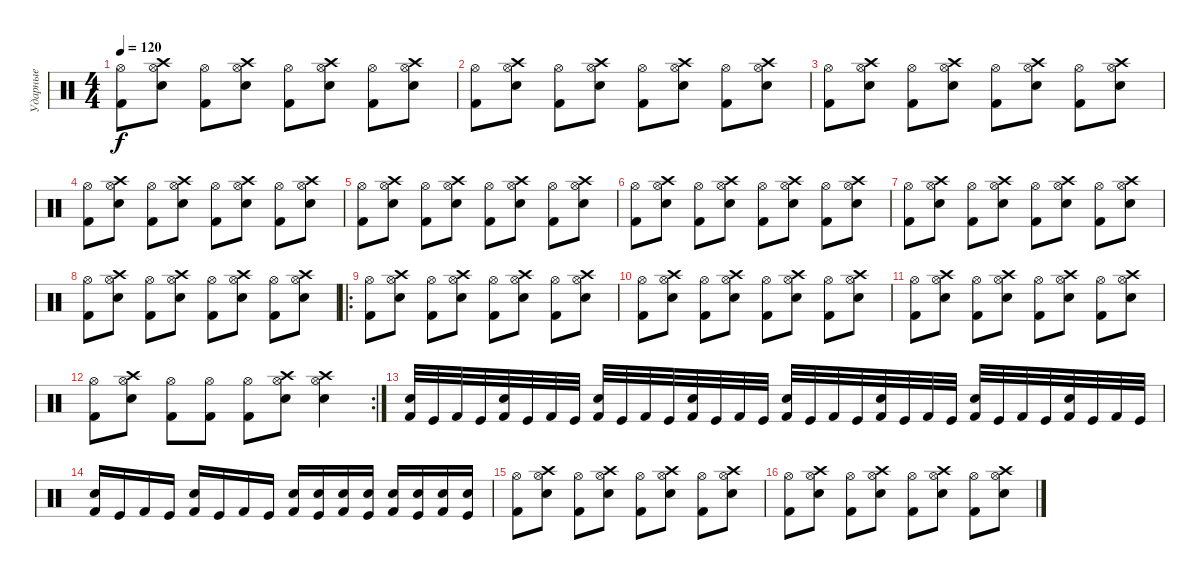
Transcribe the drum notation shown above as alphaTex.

\track ("Ударные" "Ударные") {instrument percussion}
\staff {score}
\articulation defaults
\ts (4 4)
\tempo 120
\clef neutral
\ks c
("Hi-Hat (open)" "Kick (hit) 2").8{dy f} ("Hi-Hat (open)" "Crash high (hit)" "Snare (hit) 2").8 ("Hi-Hat (open)" "Kick (hit) 2").8 ("Hi-Hat (open)" "Crash high (hit)" "Snare (hit) 2").8 ("Hi-Hat (open)" "Kick (hit) 2").8 ("Hi-Hat (open)" "Crash high (hit)" "Snare (hit) 2").8 ("Hi-Hat (open)" "Kick (hit) 2").8 ("Hi-Hat (open)" "Crash high (hit)" "Snare (hit) 2").8 |
("Hi-Hat (open)" "Kick (hit) 2").8 ("Hi-Hat (open)" "Crash high (hit)" "Snare (hit) 2").8 ("Hi-Hat (open)" "Kick (hit) 2").8 ("Hi-Hat (open)" "Crash high (hit)" "Snare (hit) 2").8 ("Hi-Hat (open)" "Kick (hit) 2").8 ("Hi-Hat (open)" "Crash high (hit)" "Snare (hit) 2").8 ("Hi-Hat (open)" "Kick (hit) 2").8 ("Hi-Hat (open)" "Crash high (hit)" "Snare (hit) 2").8 |
("Hi-Hat (open)" "Kick (hit) 2").8 ("Hi-Hat (open)" "Crash high (hit)" "Snare (hit) 2").8 ("Hi-Hat (open)" "Kick (hit) 2").8 ("Hi-Hat (open)" "Crash high (hit)" "Snare (hit) 2").8 ("Hi-Hat (open)" "Kick (hit) 2").8 ("Hi-Hat (open)" "Crash high (hit)" "Snare (hit) 2").8 ("Hi-Hat (open)" "Kick (hit) 2").8 ("Hi-Hat (open)" "Crash high (hit)" "Snare (hit) 2").8 |
("Hi-Hat (open)" "Kick (hit) 2").8 ("Hi-Hat (open)" "Crash high (hit)" "Snare (hit) 2").8 ("Hi-Hat (open)" "Kick (hit) 2").8 ("Hi-Hat (open)" "Crash high (hit)" "Snare (hit) 2").8 ("Hi-Hat (open)" "Kick (hit) 2").8 ("Hi-Hat (open)" "Crash high (hit)" "Snare (hit) 2").8 ("Hi-Hat (open)" "Kick (hit) 2").8 ("Hi-Hat (open)" "Crash high (hit)" "Snare (hit) 2").8 |
("Hi-Hat (open)" "Kick (hit) 2").8 ("Hi-Hat (open)" "Crash high (hit)" "Snare (hit) 2").8 ("Hi-Hat (open)" "Kick (hit) 2").8 ("Hi-Hat (open)" "Crash high (hit)" "Snare (hit) 2").8 ("Hi-Hat (open)" "Kick (hit) 2").8 ("Hi-Hat (open)" "Crash high (hit)" "Snare (hit) 2").8 ("Hi-Hat (open)" "Kick (hit) 2").8 ("Hi-Hat (open)" "Crash high (hit)" "Snare (hit) 2").8 |
("Hi-Hat (open)" "Kick (hit) 2").8 ("Hi-Hat (open)" "Crash high (hit)" "Snare (hit) 2").8 ("Hi-Hat (open)" "Kick (hit) 2").8 ("Hi-Hat (open)" "Crash high (hit)" "Snare (hit) 2").8 ("Hi-Hat (open)" "Kick (hit) 2").8 ("Hi-Hat (open)" "Crash high (hit)" "Snare (hit) 2").8 ("Hi-Hat (open)" "Kick (hit) 2").8 ("Hi-Hat (open)" "Crash high (hit)" "Snare (hit) 2").8 |
("Hi-Hat (open)" "Kick (hit) 2").8 ("Hi-Hat (open)" "Crash high (hit)" "Snare (hit) 2").8 ("Hi-Hat (open)" "Kick (hit) 2").8 ("Hi-Hat (open)" "Crash high (hit)" "Snare (hit) 2").8 ("Hi-Hat (open)" "Kick (hit) 2").8 ("Hi-Hat (open)" "Crash high (hit)" "Snare (hit) 2").8 ("Hi-Hat (open)" "Kick (hit) 2").8 ("Hi-Hat (open)" "Crash high (hit)" "Snare (hit) 2").8 |
("Hi-Hat (open)" "Kick (hit) 2").8 ("Hi-Hat (open)" "Crash high (hit)" "Snare (hit) 2").8 ("Hi-Hat (open)" "Kick (hit) 2").8 ("Hi-Hat (open)" "Crash high (hit)" "Snare (hit) 2").8 ("Hi-Hat (open)" "Kick (hit) 2").8 ("Hi-Hat (open)" "Crash high (hit)" "Snare (hit) 2").8 ("Hi-Hat (open)" "Kick (hit) 2").8 ("Hi-Hat (open)" "Crash high (hit)" "Snare (hit) 2").8 |
\ro
("Hi-Hat (open)" "Kick (hit) 2").8 ("Hi-Hat (open)" "Crash high (hit)" "Snare (hit) 2").8 ("Hi-Hat (open)" "Kick (hit) 2").8 ("Hi-Hat (open)" "Crash high (hit)" "Snare (hit) 2").8 ("Hi-Hat (open)" "Kick (hit) 2").8 ("Hi-Hat (open)" "Crash high (hit)" "Snare (hit) 2").8 ("Hi-Hat (open)" "Kick (hit) 2").8 ("Hi-Hat (open)" "Crash high (hit)" "Snare (hit) 2").8 |
("Hi-Hat (open)" "Kick (hit) 2").8 ("Hi-Hat (open)" "Crash high (hit)" "Snare (hit) 2").8 ("Hi-Hat (open)" "Kick (hit) 2").8 ("Hi-Hat (open)" "Crash high (hit)" "Snare (hit) 2").8 ("Hi-Hat (open)" "Kick (hit) 2").8 ("Hi-Hat (open)" "Crash high (hit)" "Snare (hit) 2").8 ("Hi-Hat (open)" "Kick (hit) 2").8 ("Hi-Hat (open)" "Crash high (hit)" "Snare (hit) 2").8 |
("Hi-Hat (open)" "Kick (hit) 2").8 ("Hi-Hat (open)" "Crash high (hit)" "Snare (hit) 2").8 ("Hi-Hat (open)" "Kick (hit) 2").8 ("Hi-Hat (open)" "Crash high (hit)" "Snare (hit) 2").8 ("Hi-Hat (open)" "Kick (hit) 2").8 ("Hi-Hat (open)" "Crash high (hit)" "Snare (hit) 2").8 ("Hi-Hat (open)" "Kick (hit) 2").8 ("Hi-Hat (open)" "Crash high (hit)" "Snare (hit) 2").8 |
\rc 2
("Hi-Hat (open)" "Kick (hit) 2").8 ("Hi-Hat (open)" "Crash high (hit)" "Snare (hit) 2").8 ("Hi-Hat (open)" "Kick (hit) 2").8 ("Hi-Hat (open)" "Kick (hit) 2").8 ("Hi-Hat (open)" "Kick (hit) 2").8 ("Hi-Hat (open)" "Crash high (hit)" "Snare (hit) 2").8 ("Hi-Hat (open)" "Crash high (hit)" "Snare (hit) 2").4 |
("Snare (hit) 2" "Kick (hit) 2").32 "Kick (hit)".32 "Kick (hit) 2".32 "Kick (hit)".32 ("Snare (hit) 2" "Kick (hit) 2").32 "Kick (hit)".32 "Kick (hit) 2".32 "Kick (hit)".32 ("Snare (hit) 2" "Kick (hit) 2").32 "Kick (hit)".32 "Kick (hit) 2".32 "Kick (hit)".32 ("Snare (hit) 2" "Kick (hit) 2").32 "Kick (hit)".32 "Kick (hit) 2".32 "Kick (hit)".32 ("Snare (hit) 2" "Kick (hit) 2").32 "Kick (hit)".32 "Kick (hit) 2".32 "Kick (hit)".32 ("Snare (hit) 2" "Kick (hit) 2").32 "Kick (hit)".32 "Kick (hit) 2".32 "Kick (hit)".32 ("Snare (hit) 2" "Kick (hit) 2").32 "Kick (hit)".32 "Kick (hit) 2".32 "Kick (hit)".32 ("Snare (hit) 2" "Kick (hit) 2").32 "Kick (hit)".32 "Kick (hit) 2".32 "Kick (hit)".32 |
("Snare (hit) 2" "Kick (hit) 2").16 "Kick (hit)".16 "Kick (hit) 2".16 "Kick (hit)".16 ("Snare (hit) 2" "Kick (hit) 2").16 "Kick (hit)".16 "Kick (hit) 2".16 "Kick (hit)".16 ("Snare (hit) 2" "Kick (hit) 2").16 ("Snare (hit) 2" "Kick (hit)").16 ("Snare (hit) 2" "Kick (hit) 2").16 ("Snare (hit) 2" "Kick (hit)").16 ("Snare (hit) 2" "Kick (hit) 2").16 ("Snare (hit) 2" "Kick (hit)").16 ("Snare (hit) 2" "Kick (hit) 2").16 ("Snare (hit) 2" "Kick (hit)").16 |
("Hi-Hat (open)" "Kick (hit) 2").8 ("Hi-Hat (open)" "Crash high (hit)" "Snare (hit) 2").8 ("Hi-Hat (open)" "Kick (hit) 2").8 ("Hi-Hat (open)" "Crash high (hit)" "Snare (hit) 2").8 ("Hi-Hat (open)" "Kick (hit) 2").8 ("Hi-Hat (open)" "Crash high (hit)" "Snare (hit) 2").8 ("Hi-Hat (open)" "Kick (hit) 2").8 ("Hi-Hat (open)" "Crash high (hit)" "Snare (hit) 2").8 |
("Hi-Hat (open)" "Kick (hit) 2").8 ("Hi-Hat (open)" "Crash high (hit)" "Snare (hit) 2").8 ("Hi-Hat (open)" "Kick (hit) 2").8 ("Hi-Hat (open)" "Crash high (hit)" "Snare (hit) 2").8 ("Hi-Hat (open)" "Kick (hit) 2").8 ("Hi-Hat (open)" "Crash high (hit)" "Snare (hit) 2").8 ("Hi-Hat (open)" "Kick (hit) 2").8 ("Hi-Hat (open)" "Crash high (hit)" "Snare (hit) 2").8
